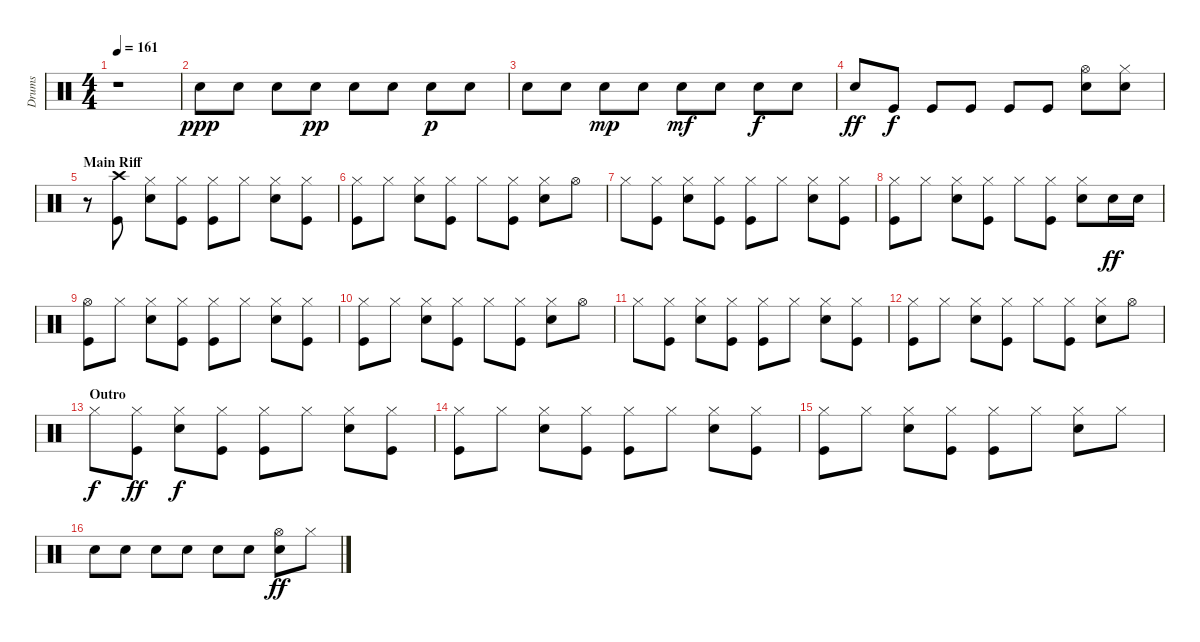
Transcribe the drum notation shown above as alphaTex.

\track ("Drums" "Drums") {instrument percussion}
\staff {score}
\articulation defaults
\ts (4 4)
\tempo 161
\clef neutral
\ks c
r.1{dy f} |
"Electric Snare (hit)".8{dy ppp} "Electric Snare (hit)".8 "Electric Snare (hit)".8 "Electric Snare (hit)".8{dy pp} "Electric Snare (hit)".8 "Electric Snare (hit)".8 "Electric Snare (hit)".8{dy p} "Electric Snare (hit)".8 |
"Electric Snare (hit)".8 "Electric Snare (hit)".8 "Electric Snare (hit)".8{dy mp} "Electric Snare (hit)".8 "Electric Snare (hit)".8{dy mf} "Electric Snare (hit)".8 "Electric Snare (hit)".8{dy f} "Electric Snare (hit)".8 |
"Electric Snare (hit)".8{dy ff} "Kick (hit)".8{dy f} "Kick (hit)".8 "Kick (hit)".8 "Kick (hit)".8 "Kick (hit)".8 ("Hi-Hat (open)" "Electric Snare (hit)").8 ("Hi-Hat (closed)" "Electric Snare (hit)").8 |
\section ("" "Main Riff")
r.8 ("Crash high (hit)" "Kick (hit)").8 ("Hi-Hat (closed)" "Electric Snare (hit)").8 ("Hi-Hat (closed)" "Kick (hit)").8 ("Hi-Hat (closed)" "Kick (hit)").8 "Hi-Hat (closed)".8 ("Hi-Hat (closed)" "Electric Snare (hit)").8 ("Hi-Hat (closed)" "Kick (hit)").8 |
("Hi-Hat (closed)" "Kick (hit)").8 "Hi-Hat (closed)".8 ("Hi-Hat (closed)" "Electric Snare (hit)").8 ("Hi-Hat (closed)" "Kick (hit)").8 "Hi-Hat (closed)".8 ("Hi-Hat (closed)" "Kick (hit)").8 ("Hi-Hat (closed)" "Electric Snare (hit)").8 "Hi-Hat (open)".8 |
"Hi-Hat (closed)".8 ("Hi-Hat (closed)" "Kick (hit)").8 ("Hi-Hat (closed)" "Electric Snare (hit)").8 ("Hi-Hat (closed)" "Kick (hit)").8 ("Hi-Hat (closed)" "Kick (hit)").8 "Hi-Hat (closed)".8 ("Hi-Hat (closed)" "Electric Snare (hit)").8 ("Hi-Hat (closed)" "Kick (hit)").8 |
("Hi-Hat (closed)" "Kick (hit)").8 "Hi-Hat (closed)".8 ("Hi-Hat (closed)" "Electric Snare (hit)").8 ("Hi-Hat (closed)" "Kick (hit)").8 "Hi-Hat (closed)".8 ("Hi-Hat (closed)" "Kick (hit)").8 ("Hi-Hat (closed)" "Electric Snare (hit)").8 "Electric Snare (hit)".16{dy ff} "Electric Snare (hit)".16 |
("Hi-Hat (open)" "Kick (hit)").8 "Hi-Hat (closed)".8 ("Hi-Hat (closed)" "Electric Snare (hit)").8 ("Hi-Hat (closed)" "Kick (hit)").8 ("Hi-Hat (closed)" "Kick (hit)").8 "Hi-Hat (closed)".8 ("Hi-Hat (closed)" "Electric Snare (hit)").8 ("Hi-Hat (closed)" "Kick (hit)").8 |
("Hi-Hat (closed)" "Kick (hit)").8 "Hi-Hat (closed)".8 ("Hi-Hat (closed)" "Electric Snare (hit)").8 ("Hi-Hat (closed)" "Kick (hit)").8 "Hi-Hat (closed)".8 ("Hi-Hat (closed)" "Kick (hit)").8 ("Hi-Hat (closed)" "Electric Snare (hit)").8 "Hi-Hat (open)".8 |
"Hi-Hat (closed)".8 ("Hi-Hat (closed)" "Kick (hit)").8 ("Hi-Hat (closed)" "Electric Snare (hit)").8 ("Hi-Hat (closed)" "Kick (hit)").8 ("Hi-Hat (closed)" "Kick (hit)").8 "Hi-Hat (closed)".8 ("Hi-Hat (closed)" "Electric Snare (hit)").8 ("Hi-Hat (closed)" "Kick (hit)").8 |
("Hi-Hat (closed)" "Kick (hit)").8 "Hi-Hat (closed)".8 ("Hi-Hat (closed)" "Electric Snare (hit)").8 ("Hi-Hat (closed)" "Kick (hit)").8 "Hi-Hat (closed)".8 ("Hi-Hat (closed)" "Kick (hit)").8 ("Hi-Hat (closed)" "Electric Snare (hit)").8 "Hi-Hat (open)".8 |
\section ("" "Outro")
"Hi-Hat (closed)".8{dy f} ("Hi-Hat (closed)" "Kick (hit)").8{dy ff} ("Hi-Hat (closed)" "Electric Snare (hit)").8{dy f} ("Hi-Hat (closed)" "Kick (hit)").8 ("Hi-Hat (closed)" "Kick (hit)").8 "Hi-Hat (closed)".8 ("Hi-Hat (closed)" "Electric Snare (hit)").8 ("Hi-Hat (closed)" "Kick (hit)").8 |
("Hi-Hat (closed)" "Kick (hit)").8 "Hi-Hat (closed)".8 ("Hi-Hat (closed)" "Electric Snare (hit)").8 ("Hi-Hat (closed)" "Kick (hit)").8 ("Hi-Hat (closed)" "Kick (hit)").8 "Hi-Hat (closed)".8 ("Hi-Hat (closed)" "Electric Snare (hit)").8 ("Hi-Hat (closed)" "Kick (hit)").8 |
("Hi-Hat (closed)" "Kick (hit)").8 "Hi-Hat (closed)".8 ("Hi-Hat (closed)" "Electric Snare (hit)").8 ("Hi-Hat (closed)" "Kick (hit)").8 ("Hi-Hat (closed)" "Kick (hit)").8 "Hi-Hat (closed)".8 ("Hi-Hat (closed)" "Electric Snare (hit)").8 "Hi-Hat (closed)".8 |
"Electric Snare (hit)".8 "Electric Snare (hit)".8 "Electric Snare (hit)".8 "Electric Snare (hit)".8 "Electric Snare (hit)".8 "Electric Snare (hit)".8 ("Hi-Hat (open)" "Electric Snare (hit)").8{dy ff} "Hi-Hat (closed)".8
